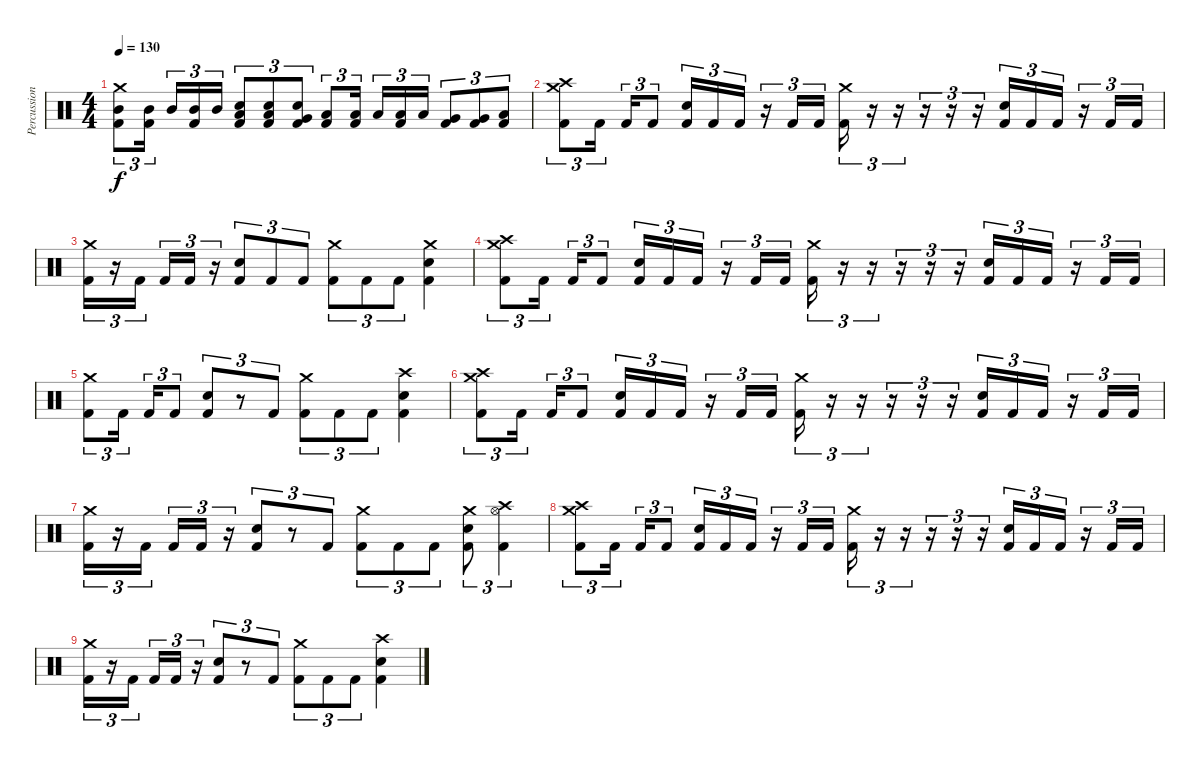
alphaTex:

\track ("Percussion" "Percussion") {instrument percussion}
\staff {score}
\articulation defaults
\ts (4 4)
\tempo 130
\clef neutral
\ks c
("Crash medium (hit)" "Mid Tom (hit)" "Kick (hit) 2").8{tu (3 2) dy f} ("Mid Tom (hit)" "Kick (hit) 2").16{tu (3 2)} "Mid Tom (hit)".16{tu (3 2)} ("Mid Tom (hit)" "Kick (hit) 2").16{tu (3 2)} "Mid Tom (hit)".16{tu (3 2)} ("Low Tom (hit)" "Snare (hit) 2" "Kick (hit) 2").8{tu (3 2)} ("Low Tom (hit)" "Snare (hit) 2" "Kick (hit) 2").8{tu (3 2)} ("Very Low Tom (hit)" "Snare (hit) 2" "Kick (hit) 2").8{tu (3 2)} ("Low Tom (hit)" "Kick (hit) 2").8{tu (3 2)} ("Low Tom (hit)" "Kick (hit) 2").16{tu (3 2)} "Low Tom (hit)".16{tu (3 2)} ("Low Tom (hit)" "Kick (hit) 2").16{tu (3 2)} "Low Tom (hit)".16{tu (3 2)} ("Very Low Tom (hit)" "Kick (hit) 2").8{tu (3 2)} ("Very Low Tom (hit)" "Kick (hit) 2").8{tu (3 2)} ("Low Floor Tom (hit)" "Kick (hit) 2").8{tu (3 2)} |
("Crash medium (hit)" "Crash high (hit)" "Kick (hit) 2").8{tu (3 2)} "Kick (hit) 2".16{tu (3 2)} "Kick (hit) 2".16{tu (3 2)} "Kick (hit) 2".8{tu (3 2)} ("Snare (hit) 2" "Kick (hit) 2").16{tu (3 2)} "Kick (hit) 2".16{tu (3 2)} "Kick (hit) 2".16{tu (3 2)} r.16{tu (3 2)} "Kick (hit) 2".16{tu (3 2)} "Kick (hit) 2".16{tu (3 2)} ("Crash medium (hit)" "Kick (hit) 2").16{tu (3 2)} r.16{tu (3 2)} r.16{tu (3 2)} r.16{tu (3 2)} r.16{tu (3 2)} r.16{tu (3 2)} ("Snare (hit) 2" "Kick (hit) 2").16{tu (3 2)} "Kick (hit) 2".16{tu (3 2)} "Kick (hit) 2".16{tu (3 2)} r.16{tu (3 2)} "Kick (hit) 2".16{tu (3 2)} "Kick (hit) 2".16{tu (3 2)} |
("Crash medium (hit)" "Kick (hit) 2").16{tu (3 2)} r.16{tu (3 2)} "Kick (hit) 2".16{tu (3 2)} "Kick (hit) 2".16{tu (3 2)} "Kick (hit) 2".16{tu (3 2)} r.16{tu (3 2)} ("Snare (hit) 2" "Kick (hit) 2").8{tu (3 2)} "Kick (hit) 2".8{tu (3 2)} "Kick (hit) 2".8{tu (3 2)} ("Crash medium (hit)" "Kick (hit) 2").8{tu (3 2)} "Kick (hit) 2".8{tu (3 2)} "Kick (hit) 2".8{tu (3 2)} ("Crash medium (hit)" "Snare (hit) 2" "Kick (hit) 2").4 |
("Crash medium (hit)" "Crash high (hit)" "Kick (hit) 2").8{tu (3 2)} "Kick (hit) 2".16{tu (3 2)} "Kick (hit) 2".16{tu (3 2)} "Kick (hit) 2".8{tu (3 2)} ("Snare (hit) 2" "Kick (hit) 2").16{tu (3 2)} "Kick (hit) 2".16{tu (3 2)} "Kick (hit) 2".16{tu (3 2)} r.16{tu (3 2)} "Kick (hit) 2".16{tu (3 2)} "Kick (hit) 2".16{tu (3 2)} ("Crash medium (hit)" "Kick (hit) 2").16{tu (3 2)} r.16{tu (3 2)} r.16{tu (3 2)} r.16{tu (3 2)} r.16{tu (3 2)} r.16{tu (3 2)} ("Snare (hit) 2" "Kick (hit) 2").16{tu (3 2)} "Kick (hit) 2".16{tu (3 2)} "Kick (hit) 2".16{tu (3 2)} r.16{tu (3 2)} "Kick (hit) 2".16{tu (3 2)} "Kick (hit) 2".16{tu (3 2)} |
("Crash medium (hit)" "Kick (hit) 2").8{tu (3 2)} "Kick (hit) 2".16{tu (3 2)} "Kick (hit) 2".16{tu (3 2)} "Kick (hit) 2".8{tu (3 2)} ("Snare (hit) 2" "Kick (hit) 2").8{tu (3 2)} r.8{tu (3 2)} "Kick (hit) 2".8{tu (3 2)} ("Crash medium (hit)" "Kick (hit) 2").8{tu (3 2)} "Kick (hit) 2".8{tu (3 2)} "Kick (hit) 2".8{tu (3 2)} ("Crash high (hit)" "Snare (hit) 2" "Kick (hit) 2").4 |
("Crash medium (hit)" "Crash high (hit)" "Kick (hit) 2").8{tu (3 2)} "Kick (hit) 2".16{tu (3 2)} "Kick (hit) 2".16{tu (3 2)} "Kick (hit) 2".8{tu (3 2)} ("Snare (hit) 2" "Kick (hit) 2").16{tu (3 2)} "Kick (hit) 2".16{tu (3 2)} "Kick (hit) 2".16{tu (3 2)} r.16{tu (3 2)} "Kick (hit) 2".16{tu (3 2)} "Kick (hit) 2".16{tu (3 2)} ("Crash medium (hit)" "Kick (hit) 2").16{tu (3 2)} r.16{tu (3 2)} r.16{tu (3 2)} r.16{tu (3 2)} r.16{tu (3 2)} r.16{tu (3 2)} ("Snare (hit) 2" "Kick (hit) 2").16{tu (3 2)} "Kick (hit) 2".16{tu (3 2)} "Kick (hit) 2".16{tu (3 2)} r.16{tu (3 2)} "Kick (hit) 2".16{tu (3 2)} "Kick (hit) 2".16{tu (3 2)} |
("Crash medium (hit)" "Kick (hit) 2").16{tu (3 2)} r.16{tu (3 2)} "Kick (hit) 2".16{tu (3 2)} "Kick (hit) 2".16{tu (3 2)} "Kick (hit) 2".16{tu (3 2)} r.16{tu (3 2)} ("Snare (hit) 2" "Kick (hit) 2").8{tu (3 2)} r.8{tu (3 2)} "Kick (hit) 2".8{tu (3 2)} ("Crash medium (hit)" "Kick (hit) 2").8{tu (3 2)} "Kick (hit) 2".8{tu (3 2)} "Kick (hit) 2".8{tu (3 2)} ("Crash medium (hit)" "Snare (hit) 2" "Kick (hit) 2").8{tu (3 2)} ("Crash high (hit)" "Hi-Hat (open)" "Kick (hit) 2").4{tu (3 2)} |
("Crash medium (hit)" "Crash high (hit)" "Kick (hit) 2").8{tu (3 2)} "Kick (hit) 2".16{tu (3 2)} "Kick (hit) 2".16{tu (3 2)} "Kick (hit) 2".8{tu (3 2)} ("Snare (hit) 2" "Kick (hit) 2").16{tu (3 2)} "Kick (hit) 2".16{tu (3 2)} "Kick (hit) 2".16{tu (3 2)} r.16{tu (3 2)} "Kick (hit) 2".16{tu (3 2)} "Kick (hit) 2".16{tu (3 2)} ("Crash medium (hit)" "Kick (hit) 2").16{tu (3 2)} r.16{tu (3 2)} r.16{tu (3 2)} r.16{tu (3 2)} r.16{tu (3 2)} r.16{tu (3 2)} ("Snare (hit) 2" "Kick (hit) 2").16{tu (3 2)} "Kick (hit) 2".16{tu (3 2)} "Kick (hit) 2".16{tu (3 2)} r.16{tu (3 2)} "Kick (hit) 2".16{tu (3 2)} "Kick (hit) 2".16{tu (3 2)} |
("Crash medium (hit)" "Kick (hit) 2").16{tu (3 2)} r.16{tu (3 2)} "Kick (hit) 2".16{tu (3 2)} "Kick (hit) 2".16{tu (3 2)} "Kick (hit) 2".16{tu (3 2)} r.16{tu (3 2)} ("Snare (hit) 2" "Kick (hit) 2").8{tu (3 2)} r.8{tu (3 2)} "Kick (hit) 2".8{tu (3 2)} ("Crash medium (hit)" "Kick (hit) 2").8{tu (3 2)} "Kick (hit) 2".8{tu (3 2)} "Kick (hit) 2".8{tu (3 2)} ("Crash high (hit)" "Snare (hit) 2" "Kick (hit) 2").4
